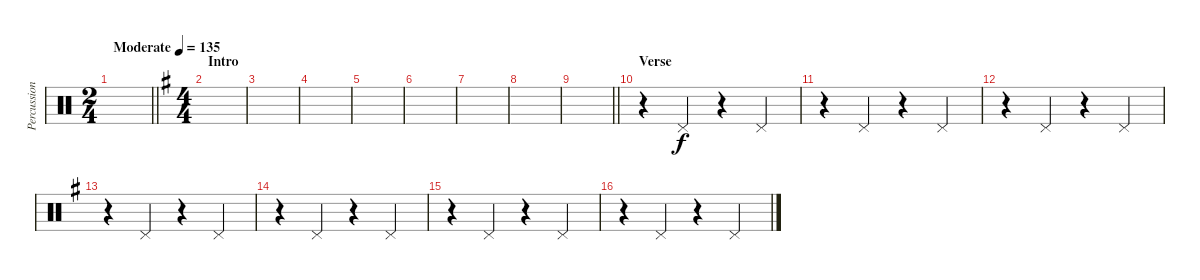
\track ("Percussion" "Percussion") {instrument percussion}
\staff {score}
\articulation defaults
\ts (2 4)
\tempo (135 "Moderate")
\clef neutral
\barLineRight lightlight
\ks c
|
\ts (4 4)
\section ("" "Intro")
\ks g
|
|
|
|
|
|
|
\barLineRight lightlight
|
\section ("" "Verse")
r.4 "Pedal Hi-Hat (hit)".4 r.4 "Pedal Hi-Hat (hit)".4 |
r.4 "Pedal Hi-Hat (hit)".4 r.4 "Pedal Hi-Hat (hit)".4 |
r.4 "Pedal Hi-Hat (hit)".4 r.4 "Pedal Hi-Hat (hit)".4 |
r.4 "Pedal Hi-Hat (hit)".4 r.4 "Pedal Hi-Hat (hit)".4 |
r.4 "Pedal Hi-Hat (hit)".4 r.4 "Pedal Hi-Hat (hit)".4 |
r.4 "Pedal Hi-Hat (hit)".4 r.4 "Pedal Hi-Hat (hit)".4 |
r.4 "Pedal Hi-Hat (hit)".4 r.4 "Pedal Hi-Hat (hit)".4
